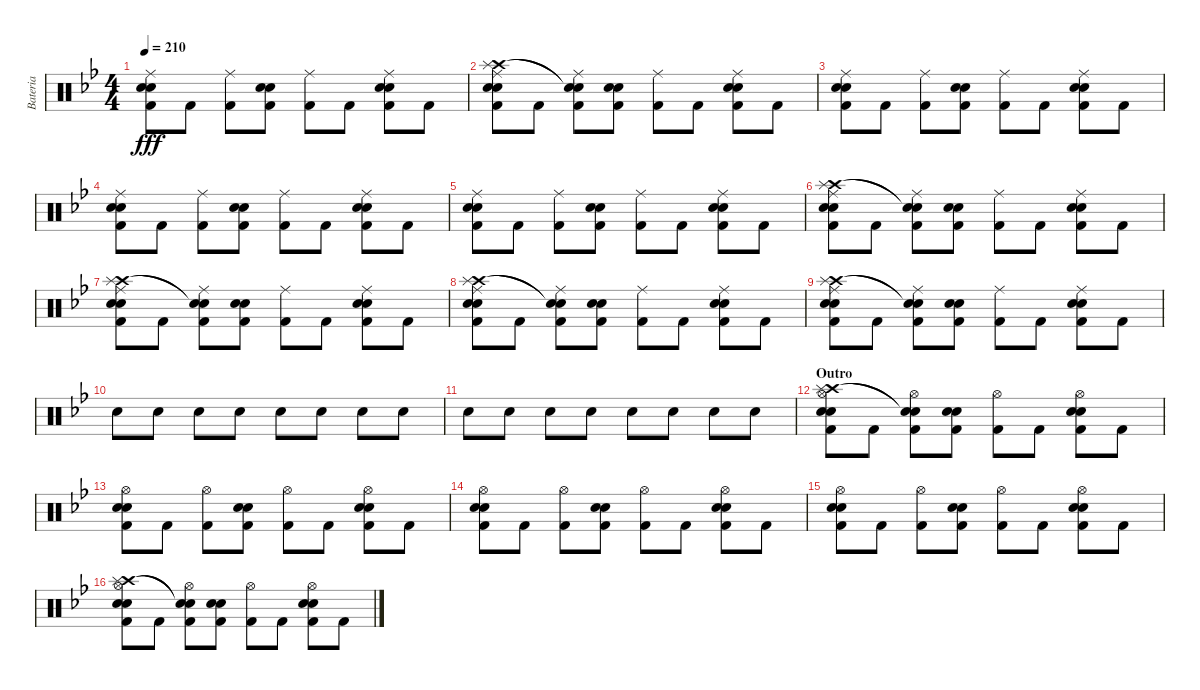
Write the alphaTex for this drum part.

\track ("Bateria" "Bateria") {instrument percussion}
\staff {score}
\articulation defaults
\ts (4 4)
\tempo 210
\clef neutral
\ks gminor
("Ride (middle)" "Snare (hit) 2" "Kick (hit) 2" "Electric Snare (hit)").8{dy fff} "Kick (hit) 2".8 ("Ride (middle)" "Kick (hit) 2").8 ("Snare (hit) 2" "Kick (hit) 2" "Electric Snare (hit)").8 ("Ride (middle)" "Kick (hit) 2").8 "Kick (hit) 2".8 ("Ride (middle)" "Snare (hit) 2" "Kick (hit) 2" "Electric Snare (hit)").8 "Kick (hit) 2".8 |
("Ride (middle)" "Crash high (hit)" "Splash (hit)" "Snare (hit) 2" "Kick (hit) 2" "Electric Snare (hit)").8 "Kick (hit) 2".8 ("Ride (middle)" "Snare (hit)"{t} "Snare (hit)"{t} "Kick (hit) 2").8 ("Snare (hit) 2" "Kick (hit) 2" "Electric Snare (hit)").8 ("Ride (middle)" "Kick (hit) 2").8 "Kick (hit) 2".8 ("Ride (middle)" "Snare (hit) 2" "Kick (hit) 2" "Electric Snare (hit)").8 "Kick (hit) 2".8 |
("Ride (middle)" "Snare (hit) 2" "Kick (hit) 2" "Electric Snare (hit)").8 "Kick (hit) 2".8 ("Ride (middle)" "Kick (hit) 2").8 ("Snare (hit) 2" "Kick (hit) 2" "Electric Snare (hit)").8 ("Ride (middle)" "Kick (hit) 2").8 "Kick (hit) 2".8 ("Ride (middle)" "Snare (hit) 2" "Kick (hit) 2" "Electric Snare (hit)").8 "Kick (hit) 2".8 |
("Ride (middle)" "Snare (hit) 2" "Kick (hit) 2" "Electric Snare (hit)").8 "Kick (hit) 2".8 ("Ride (middle)" "Kick (hit) 2").8 ("Snare (hit) 2" "Kick (hit) 2" "Electric Snare (hit)").8 ("Ride (middle)" "Kick (hit) 2").8 "Kick (hit) 2".8 ("Ride (middle)" "Snare (hit) 2" "Kick (hit) 2" "Electric Snare (hit)").8 "Kick (hit) 2".8 |
("Ride (middle)" "Snare (hit) 2" "Kick (hit) 2" "Electric Snare (hit)").8 "Kick (hit) 2".8 ("Ride (middle)" "Kick (hit) 2").8 ("Snare (hit) 2" "Kick (hit) 2" "Electric Snare (hit)").8 ("Ride (middle)" "Kick (hit) 2").8 "Kick (hit) 2".8 ("Ride (middle)" "Snare (hit) 2" "Kick (hit) 2" "Electric Snare (hit)").8 "Kick (hit) 2".8 |
("Ride (middle)" "Crash high (hit)" "Splash (hit)" "Snare (hit) 2" "Kick (hit) 2" "Electric Snare (hit)").8 "Kick (hit) 2".8 ("Ride (middle)" "Snare (hit)"{t} "Snare (hit)"{t} "Kick (hit) 2").8 ("Snare (hit) 2" "Kick (hit) 2" "Electric Snare (hit)").8 ("Ride (middle)" "Kick (hit) 2").8 "Kick (hit) 2".8 ("Ride (middle)" "Snare (hit) 2" "Kick (hit) 2" "Electric Snare (hit)").8 "Kick (hit) 2".8 |
("Ride (middle)" "Crash high (hit)" "Splash (hit)" "Snare (hit) 2" "Kick (hit) 2" "Electric Snare (hit)").8 "Kick (hit) 2".8 ("Ride (middle)" "Snare (hit)"{t} "Snare (hit)"{t} "Kick (hit) 2").8 ("Snare (hit) 2" "Kick (hit) 2" "Electric Snare (hit)").8 ("Ride (middle)" "Kick (hit) 2").8 "Kick (hit) 2".8 ("Ride (middle)" "Snare (hit) 2" "Kick (hit) 2" "Electric Snare (hit)").8 "Kick (hit) 2".8 |
("Ride (middle)" "Crash high (hit)" "Splash (hit)" "Snare (hit) 2" "Kick (hit) 2" "Electric Snare (hit)").8 "Kick (hit) 2".8 ("Ride (middle)" "Snare (hit)"{t} "Snare (hit)"{t} "Kick (hit) 2").8 ("Snare (hit) 2" "Kick (hit) 2" "Electric Snare (hit)").8 ("Ride (middle)" "Kick (hit) 2").8 "Kick (hit) 2".8 ("Ride (middle)" "Snare (hit) 2" "Kick (hit) 2" "Electric Snare (hit)").8 "Kick (hit) 2".8 |
("Ride (middle)" "Crash high (hit)" "Splash (hit)" "Snare (hit) 2" "Kick (hit) 2" "Electric Snare (hit)").8 "Kick (hit) 2".8 ("Ride (middle)" "Snare (hit)"{t} "Snare (hit)"{t} "Kick (hit) 2").8 ("Snare (hit) 2" "Kick (hit) 2" "Electric Snare (hit)").8 ("Ride (middle)" "Kick (hit) 2").8 "Kick (hit) 2".8 ("Ride (middle)" "Snare (hit) 2" "Kick (hit) 2" "Electric Snare (hit)").8 "Kick (hit) 2".8 |
"Snare (hit) 2".8 "Electric Snare (hit)".8 "Electric Snare (hit)".8 "Snare (hit) 2".8 "Electric Snare (hit)".8 "Electric Snare (hit)".8 "Snare (hit) 2".8 "Electric Snare (hit)".8 |
"Electric Snare (hit)".8 "Snare (hit) 2".8 "Snare (hit) 2".8 "Snare (hit) 2".8 "Snare (hit) 2".8 "Snare (hit) 2".8 "Snare (hit) 2".8 "Snare (hit) 2".8 |
\section ("" "Outro")
("Hi-Hat (open)" "Crash high (hit)" "Splash (hit)" "Snare (hit) 2" "Electric Snare (hit)" "Kick (hit) 2").8 "Kick (hit) 2".8 ("Hi-Hat (open)" "Snare (hit)"{t} "Snare (hit)"{t} "Kick (hit) 2").8 ("Snare (hit) 2" "Electric Snare (hit)" "Kick (hit) 2").8 ("Hi-Hat (open)" "Kick (hit) 2").8 "Kick (hit) 2".8 ("Hi-Hat (open)" "Snare (hit) 2" "Electric Snare (hit)" "Kick (hit) 2").8 "Kick (hit) 2".8 |
("Hi-Hat (open)" "Snare (hit) 2" "Kick (hit) 2" "Electric Snare (hit)").8 "Kick (hit) 2".8 ("Hi-Hat (open)" "Kick (hit) 2").8 ("Snare (hit) 2" "Kick (hit) 2" "Electric Snare (hit)").8 ("Hi-Hat (open)" "Kick (hit) 2").8 "Kick (hit) 2".8 ("Hi-Hat (open)" "Snare (hit) 2" "Kick (hit) 2" "Electric Snare (hit)").8 "Kick (hit) 2".8 |
("Hi-Hat (open)" "Snare (hit) 2" "Kick (hit) 2" "Electric Snare (hit)").8 "Kick (hit) 2".8 ("Hi-Hat (open)" "Kick (hit) 2").8 ("Snare (hit) 2" "Kick (hit) 2" "Electric Snare (hit)").8 ("Hi-Hat (open)" "Kick (hit) 2").8 "Kick (hit) 2".8 ("Hi-Hat (open)" "Snare (hit) 2" "Kick (hit) 2" "Electric Snare (hit)").8 "Kick (hit) 2".8 |
("Hi-Hat (open)" "Snare (hit) 2" "Kick (hit) 2" "Electric Snare (hit)").8 "Kick (hit) 2".8 ("Hi-Hat (open)" "Kick (hit) 2").8 ("Snare (hit) 2" "Kick (hit) 2" "Electric Snare (hit)").8 ("Hi-Hat (open)" "Kick (hit) 2").8 "Kick (hit) 2".8 ("Hi-Hat (open)" "Snare (hit) 2" "Kick (hit) 2" "Electric Snare (hit)").8 "Kick (hit) 2".8 |
("Hi-Hat (open)" "Crash high (hit)" "Splash (hit)" "Snare (hit) 2" "Kick (hit) 2" "Electric Snare (hit)").8 "Kick (hit) 2".8 ("Hi-Hat (open)" "Snare (hit)"{t} "Snare (hit)"{t} "Kick (hit) 2").8 ("Snare (hit) 2" "Kick (hit) 2" "Electric Snare (hit)").8 ("Hi-Hat (open)" "Kick (hit) 2").8 "Kick (hit) 2".8 ("Hi-Hat (open)" "Snare (hit) 2" "Kick (hit) 2" "Electric Snare (hit)").8 "Kick (hit) 2".8
